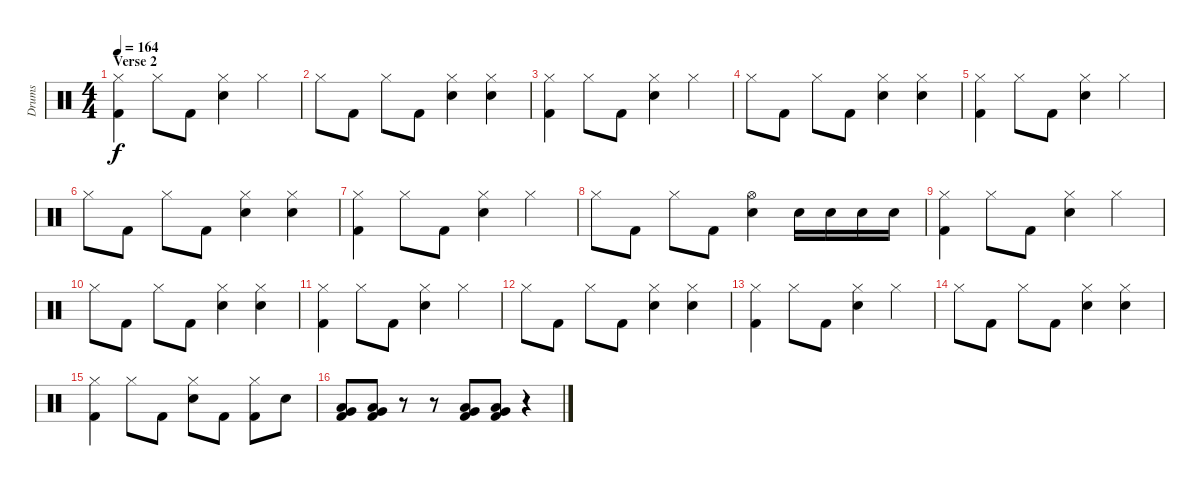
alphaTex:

\track ("Drums" "Drums") {instrument percussion}
\staff {score}
\articulation defaults
\ts (4 4)
\section ("" "Verse 2")
\tempo 164
\clef neutral
\ks c
("Hi-Hat (closed)" "Kick (hit) 2").4{dy f} "Hi-Hat (closed)".8 "Kick (hit) 2".8 ("Hi-Hat (closed)" "Electric Snare (hit)").4 "Hi-Hat (closed)".4 |
"Hi-Hat (closed)".8 "Kick (hit) 2".8 "Hi-Hat (closed)".8 "Kick (hit) 2".8 ("Hi-Hat (closed)" "Electric Snare (hit)").4 ("Hi-Hat (closed)" "Electric Snare (hit)").4 |
("Hi-Hat (closed)" "Kick (hit) 2").4 "Hi-Hat (closed)".8 "Kick (hit) 2".8 ("Hi-Hat (closed)" "Electric Snare (hit)").4 "Hi-Hat (closed)".4 |
"Hi-Hat (closed)".8 "Kick (hit) 2".8 "Hi-Hat (closed)".8 "Kick (hit) 2".8 ("Hi-Hat (closed)" "Electric Snare (hit)").4 ("Hi-Hat (closed)" "Electric Snare (hit)").4 |
("Hi-Hat (closed)" "Kick (hit) 2").4 "Hi-Hat (closed)".8 "Kick (hit) 2".8 ("Hi-Hat (closed)" "Electric Snare (hit)").4 "Hi-Hat (closed)".4 |
"Hi-Hat (closed)".8 "Kick (hit) 2".8 "Hi-Hat (closed)".8 "Kick (hit) 2".8 ("Hi-Hat (closed)" "Electric Snare (hit)").4 ("Hi-Hat (closed)" "Electric Snare (hit)").4 |
("Hi-Hat (closed)" "Kick (hit) 2").4 "Hi-Hat (closed)".8 "Kick (hit) 2".8 ("Hi-Hat (closed)" "Electric Snare (hit)").4 "Hi-Hat (closed)".4 |
"Hi-Hat (closed)".8 "Kick (hit) 2".8 "Hi-Hat (closed)".8 "Kick (hit) 2".8 ("Hi-Hat (open)" "Electric Snare (hit)").4 "Electric Snare (hit)".16 "Electric Snare (hit)".16 "Electric Snare (hit)".16 "Electric Snare (hit)".16 |
("Hi-Hat (closed)" "Kick (hit) 2").4 "Hi-Hat (closed)".8 "Kick (hit) 2".8 ("Hi-Hat (closed)" "Electric Snare (hit)").4 "Hi-Hat (closed)".4 |
"Hi-Hat (closed)".8 "Kick (hit) 2".8 "Hi-Hat (closed)".8 "Kick (hit) 2".8 ("Hi-Hat (closed)" "Electric Snare (hit)").4 ("Hi-Hat (closed)" "Electric Snare (hit)").4 |
("Hi-Hat (closed)" "Kick (hit) 2").4 "Hi-Hat (closed)".8 "Kick (hit) 2".8 ("Hi-Hat (closed)" "Electric Snare (hit)").4 "Hi-Hat (closed)".4 |
"Hi-Hat (closed)".8 "Kick (hit) 2".8 "Hi-Hat (closed)".8 "Kick (hit) 2".8 ("Hi-Hat (closed)" "Electric Snare (hit)").4 ("Hi-Hat (closed)" "Electric Snare (hit)").4 |
("Hi-Hat (closed)" "Kick (hit) 2").4 "Hi-Hat (closed)".8 "Kick (hit) 2".8 ("Hi-Hat (closed)" "Electric Snare (hit)").4 "Hi-Hat (closed)".4 |
"Hi-Hat (closed)".8 "Kick (hit) 2".8 "Hi-Hat (closed)".8 "Kick (hit) 2".8 ("Hi-Hat (closed)" "Electric Snare (hit)").4 ("Hi-Hat (closed)" "Electric Snare (hit)").4 |
("Hi-Hat (closed)" "Kick (hit) 2").4 "Hi-Hat (closed)".8 "Kick (hit) 2".8 ("Hi-Hat (closed)" "Electric Snare (hit)").8 "Kick (hit) 2".8 ("Hi-Hat (closed)" "Kick (hit) 2").8 "Electric Snare (hit)".8 |
("Low Floor Tom (hit)" "Very Low Tom (hit)" "Kick (hit) 2").8 ("Low Floor Tom (hit)" "Very Low Tom (hit)" "Kick (hit) 2").8 r.8 r.8 ("Low Floor Tom (hit)" "Very Low Tom (hit)" "Kick (hit) 2").8 ("Low Floor Tom (hit)" "Very Low Tom (hit)" "Kick (hit) 2").8 r.4
